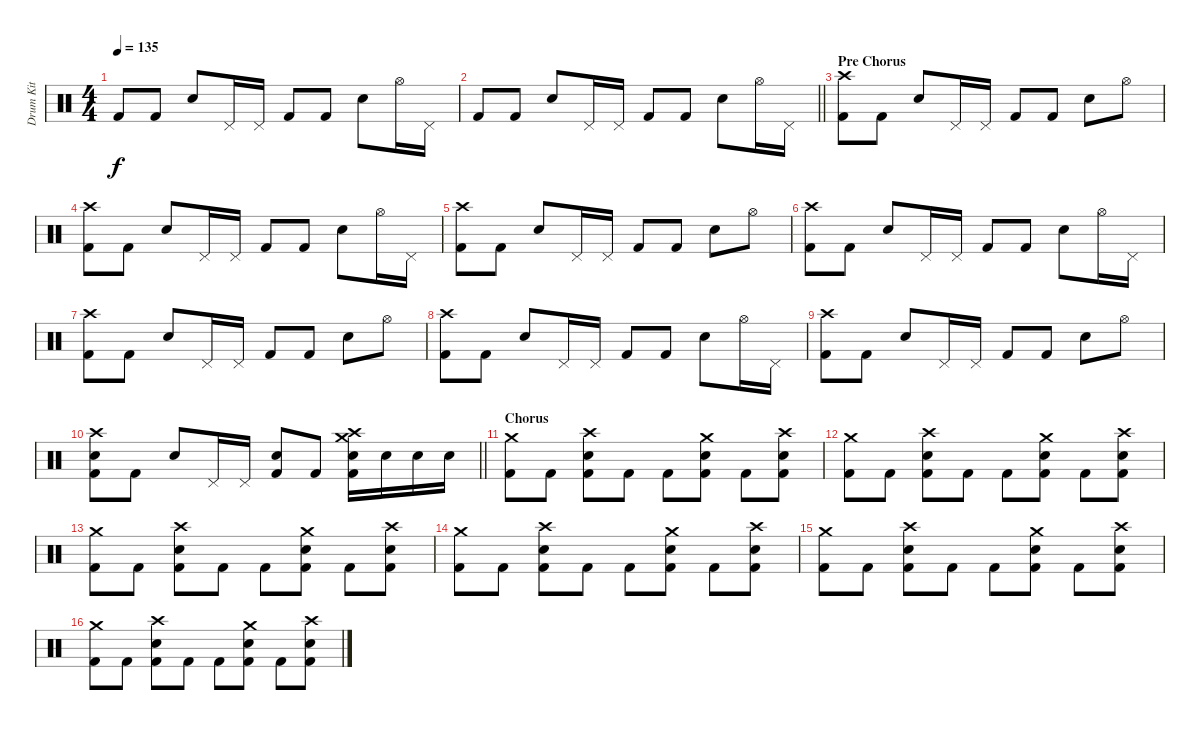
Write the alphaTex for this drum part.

\track ("Drum Kit" "Drum Kit") {instrument percussion}
\staff {score}
\articulation defaults
\ts (4 4)
\tempo 135
\clef neutral
\ks c "Kick (hit) 2".8{dy f} "Kick (hit) 2".8 "Electric Snare (hit)".8 "Pedal Hi-Hat (hit)".16 "Pedal Hi-Hat (hit)".16 "Kick (hit) 2".8 "Kick (hit) 2".8 "Electric Snare (hit)".8 "Hi-Hat (open)".16 "Pedal Hi-Hat (hit)".16
|
\barLineRight lightlight "Kick (hit) 2".8 "Kick (hit) 2".8 "Electric Snare (hit)".8 "Pedal Hi-Hat (hit)".16 "Pedal Hi-Hat (hit)".16 "Kick (hit) 2".8 "Kick (hit) 2".8 "Electric Snare (hit)".8 "Hi-Hat (open)".16 "Pedal Hi-Hat (hit)".16
|
\section ("" "Pre Chorus")
("Crash high (hit)" "Kick (hit) 2").8 "Kick (hit) 2".8 "Electric Snare (hit)".8 "Pedal Hi-Hat (hit)".16 "Pedal Hi-Hat (hit)".16 "Kick (hit) 2".8 "Kick (hit) 2".8 "Electric Snare (hit)".8 "Hi-Hat (open)".8 |
("Crash high (hit)" "Kick (hit) 2").8 "Kick (hit) 2".8 "Electric Snare (hit)".8 "Pedal Hi-Hat (hit)".16 "Pedal Hi-Hat (hit)".16 "Kick (hit) 2".8 "Kick (hit) 2".8 "Electric Snare (hit)".8 "Hi-Hat (open)".16 "Pedal Hi-Hat (hit)".16 |
("Crash high (hit)" "Kick (hit) 2").8 "Kick (hit) 2".8 "Electric Snare (hit)".8 "Pedal Hi-Hat (hit)".16 "Pedal Hi-Hat (hit)".16 "Kick (hit) 2".8 "Kick (hit) 2".8 "Electric Snare (hit)".8 "Hi-Hat (open)".8 |
("Crash high (hit)" "Kick (hit) 2").8 "Kick (hit) 2".8 "Electric Snare (hit)".8 "Pedal Hi-Hat (hit)".16 "Pedal Hi-Hat (hit)".16 "Kick (hit) 2".8 "Kick (hit) 2".8 "Electric Snare (hit)".8 "Hi-Hat (open)".16 "Pedal Hi-Hat (hit)".16 |
("Crash high (hit)" "Kick (hit) 2").8 "Kick (hit) 2".8 "Electric Snare (hit)".8 "Pedal Hi-Hat (hit)".16 "Pedal Hi-Hat (hit)".16 "Kick (hit) 2".8 "Kick (hit) 2".8 "Electric Snare (hit)".8 "Hi-Hat (open)".8 |
("Crash high (hit)" "Kick (hit) 2").8 "Kick (hit) 2".8 "Electric Snare (hit)".8 "Pedal Hi-Hat (hit)".16 "Pedal Hi-Hat (hit)".16 "Kick (hit) 2".8 "Kick (hit) 2".8 "Electric Snare (hit)".8 "Hi-Hat (open)".16 "Pedal Hi-Hat (hit)".16 |
("Crash high (hit)" "Kick (hit) 2").8 "Kick (hit) 2".8 "Electric Snare (hit)".8 "Pedal Hi-Hat (hit)".16 "Pedal Hi-Hat (hit)".16 "Kick (hit) 2".8 "Kick (hit) 2".8 "Electric Snare (hit)".8 "Hi-Hat (open)".8 |
\barLineRight lightlight
("Crash high (hit)" "Electric Snare (hit)" "Kick (hit) 2").8 "Kick (hit) 2".8 "Electric Snare (hit)".8 "Pedal Hi-Hat (hit)".16 "Pedal Hi-Hat (hit)".16 ("Electric Snare (hit)" "Kick (hit) 2").8 "Kick (hit) 2".8 ("Crash high (hit)" "Crash medium (hit)" "Electric Snare (hit)" "Kick (hit) 2").16 "Electric Snare (hit)".16 "Electric Snare (hit)".16 "Electric Snare (hit)".16 |
\section ("" "Chorus")
("Crash medium (hit)" "Kick (hit) 2").8 "Kick (hit) 2".8 ("Crash high (hit)" "Electric Snare (hit)" "Kick (hit) 2").8 "Kick (hit) 2".8 "Kick (hit) 2".8 ("Crash medium (hit)" "Electric Snare (hit)" "Kick (hit) 2").8 "Kick (hit) 2".8 ("Crash high (hit)" "Electric Snare (hit)" "Kick (hit) 2").8 |
("Crash medium (hit)" "Kick (hit) 2").8 "Kick (hit) 2".8 ("Crash high (hit)" "Electric Snare (hit)" "Kick (hit) 2").8 "Kick (hit) 2".8 "Kick (hit) 2".8 ("Crash medium (hit)" "Electric Snare (hit)" "Kick (hit) 2").8 "Kick (hit) 2".8 ("Crash high (hit)" "Electric Snare (hit)" "Kick (hit) 2").8 |
("Crash medium (hit)" "Kick (hit) 2").8 "Kick (hit) 2".8 ("Crash high (hit)" "Electric Snare (hit)" "Kick (hit) 2").8 "Kick (hit) 2".8 "Kick (hit) 2".8 ("Crash medium (hit)" "Electric Snare (hit)" "Kick (hit) 2").8 "Kick (hit) 2".8 ("Crash high (hit)" "Electric Snare (hit)" "Kick (hit) 2").8 |
("Crash medium (hit)" "Kick (hit) 2").8 "Kick (hit) 2".8 ("Crash high (hit)" "Electric Snare (hit)" "Kick (hit) 2").8 "Kick (hit) 2".8 "Kick (hit) 2".8 ("Crash medium (hit)" "Electric Snare (hit)" "Kick (hit) 2").8 "Kick (hit) 2".8 ("Crash high (hit)" "Electric Snare (hit)" "Kick (hit) 2").8 |
("Crash medium (hit)" "Kick (hit) 2").8 "Kick (hit) 2".8 ("Crash high (hit)" "Electric Snare (hit)" "Kick (hit) 2").8 "Kick (hit) 2".8 "Kick (hit) 2".8 ("Crash medium (hit)" "Electric Snare (hit)" "Kick (hit) 2").8 "Kick (hit) 2".8 ("Crash high (hit)" "Electric Snare (hit)" "Kick (hit) 2").8 |
("Crash medium (hit)" "Kick (hit) 2").8 "Kick (hit) 2".8 ("Crash high (hit)" "Electric Snare (hit)" "Kick (hit) 2").8 "Kick (hit) 2".8 "Kick (hit) 2".8 ("Crash medium (hit)" "Electric Snare (hit)" "Kick (hit) 2").8 "Kick (hit) 2".8 ("Crash high (hit)" "Electric Snare (hit)" "Kick (hit) 2").8
